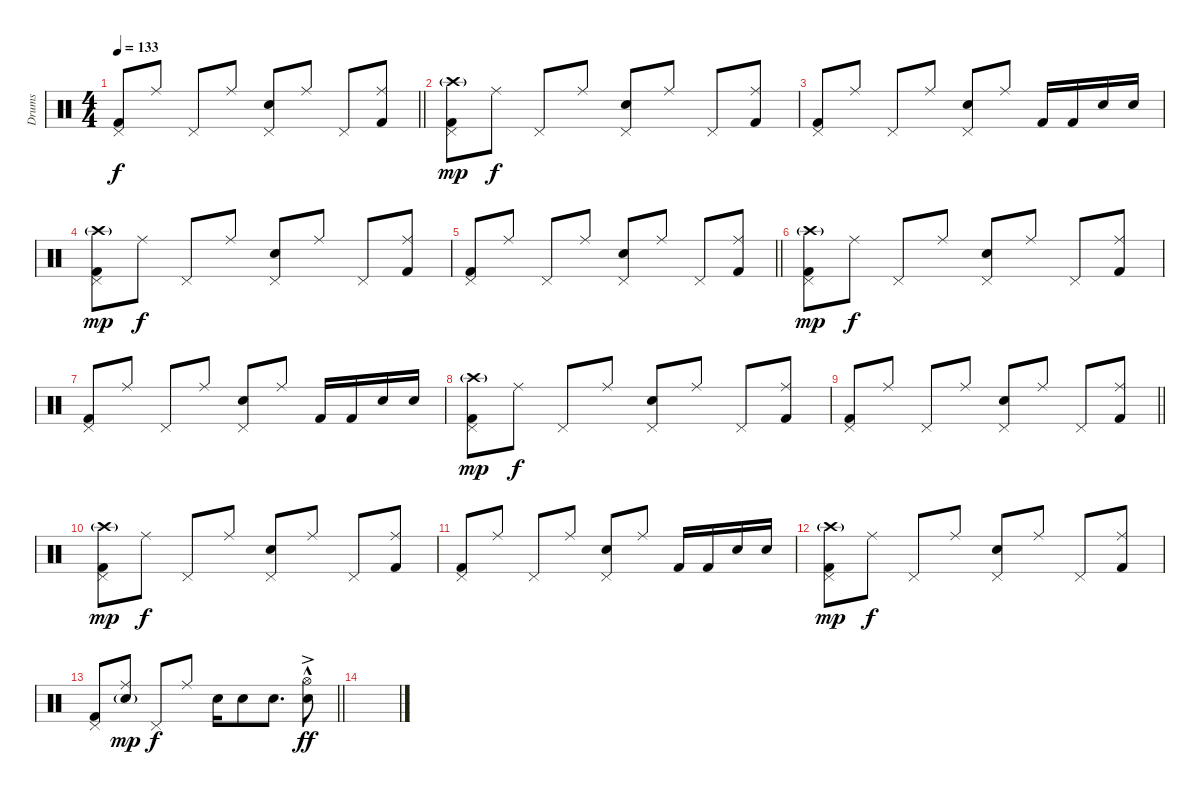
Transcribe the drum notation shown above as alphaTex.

\track ("Drums" "Drums") {instrument percussion}
\staff {score}
\articulation defaults
\ts (4 4)
\tempo 133
\clef neutral
\barLineRight lightlight
\ks c
("Pedal Hi-Hat (hit)" "Kick (hit) 2").8{dy f} "Ride (middle)".8 "Pedal Hi-Hat (hit)".8 "Ride (middle)".8 ("Pedal Hi-Hat (hit)" "Snare (hit) 2").8 "Ride (middle)".8 "Pedal Hi-Hat (hit)".8 ("Ride (middle)" "Kick (hit) 2").8 |
\section ("" "")
("Crash high (hit)"{g} "Pedal Hi-Hat (hit)" "Kick (hit) 2").8{dy mp} "Ride (middle)".8{dy f} "Pedal Hi-Hat (hit)".8 "Ride (middle)".8 ("Pedal Hi-Hat (hit)" "Snare (hit) 2").8 "Ride (middle)".8 "Pedal Hi-Hat (hit)".8 ("Ride (middle)" "Kick (hit) 2").8 |
("Pedal Hi-Hat (hit)" "Kick (hit) 2").8 "Ride (middle)".8 "Pedal Hi-Hat (hit)".8 "Ride (middle)".8 ("Pedal Hi-Hat (hit)" "Snare (hit) 2").8 "Ride (middle)".8 "Kick (hit) 2".16 "Kick (hit) 2".16 "Snare (hit) 2".16 "Snare (hit) 2".16 |
("Crash high (hit)"{g} "Pedal Hi-Hat (hit)" "Kick (hit) 2").8{dy mp} "Ride (middle)".8{dy f} "Pedal Hi-Hat (hit)".8 "Ride (middle)".8 ("Pedal Hi-Hat (hit)" "Snare (hit) 2").8 "Ride (middle)".8 "Pedal Hi-Hat (hit)".8 ("Ride (middle)" "Kick (hit) 2").8 |
\barLineRight lightlight
("Pedal Hi-Hat (hit)" "Kick (hit) 2").8 "Ride (middle)".8 "Pedal Hi-Hat (hit)".8 "Ride (middle)".8 ("Pedal Hi-Hat (hit)" "Snare (hit) 2").8 "Ride (middle)".8 "Pedal Hi-Hat (hit)".8 ("Ride (middle)" "Kick (hit) 2").8 |
\section ("" "")
("Crash high (hit)"{g} "Pedal Hi-Hat (hit)" "Kick (hit) 2").8{dy mp} "Ride (middle)".8{dy f} "Pedal Hi-Hat (hit)".8 "Ride (middle)".8 ("Pedal Hi-Hat (hit)" "Snare (hit) 2").8 "Ride (middle)".8 "Pedal Hi-Hat (hit)".8 ("Ride (middle)" "Kick (hit) 2").8 |
("Pedal Hi-Hat (hit)" "Kick (hit) 2").8 "Ride (middle)".8 "Pedal Hi-Hat (hit)".8 "Ride (middle)".8 ("Pedal Hi-Hat (hit)" "Snare (hit) 2").8 "Ride (middle)".8 "Kick (hit) 2".16 "Kick (hit) 2".16 "Snare (hit) 2".16 "Snare (hit) 2".16 |
("Crash high (hit)"{g} "Pedal Hi-Hat (hit)" "Kick (hit) 2").8{dy mp} "Ride (middle)".8{dy f} "Pedal Hi-Hat (hit)".8 "Ride (middle)".8 ("Pedal Hi-Hat (hit)" "Snare (hit) 2").8 "Ride (middle)".8 "Pedal Hi-Hat (hit)".8 ("Ride (middle)" "Kick (hit) 2").8 |
\barLineRight lightlight
("Pedal Hi-Hat (hit)" "Kick (hit) 2").8 "Ride (middle)".8 "Pedal Hi-Hat (hit)".8 "Ride (middle)".8 ("Pedal Hi-Hat (hit)" "Snare (hit) 2").8 "Ride (middle)".8 "Pedal Hi-Hat (hit)".8 ("Ride (middle)" "Kick (hit) 2").8 |
\section ("" "")
("Crash high (hit)"{g} "Pedal Hi-Hat (hit)" "Kick (hit) 2").8{dy mp} "Ride (middle)".8{dy f} "Pedal Hi-Hat (hit)".8 "Ride (middle)".8 ("Pedal Hi-Hat (hit)" "Snare (hit) 2").8 "Ride (middle)".8 "Pedal Hi-Hat (hit)".8 ("Ride (middle)" "Kick (hit) 2").8 |
("Pedal Hi-Hat (hit)" "Kick (hit) 2").8 "Ride (middle)".8 "Pedal Hi-Hat (hit)".8 "Ride (middle)".8 ("Pedal Hi-Hat (hit)" "Snare (hit) 2").8 "Ride (middle)".8 "Kick (hit) 2".16 "Kick (hit) 2".16 "Snare (hit) 2".16 "Snare (hit) 2".16 |
("Crash high (hit)"{g} "Pedal Hi-Hat (hit)" "Kick (hit) 2").8{dy mp} "Ride (middle)".8{dy f} "Pedal Hi-Hat (hit)".8 "Ride (middle)".8 ("Pedal Hi-Hat (hit)" "Snare (hit) 2").8 "Ride (middle)".8 "Pedal Hi-Hat (hit)".8 ("Ride (middle)" "Kick (hit) 2").8 |
\barLineRight lightlight
("Pedal Hi-Hat (hit)" "Kick (hit) 2").8 ("Ride (middle)" "Snare (hit) 2"{g}).8{dy mp} "Pedal Hi-Hat (hit)".8{dy f} "Ride (middle)".8 "Snare (hit) 2".16 "Snare (hit) 2".8 "Snare (hit) 2".8{d} ("Hi-Hat (open)"{hac} "Snare (hit) 2"{ac}).8{dy ff} |
\section ("" "")
